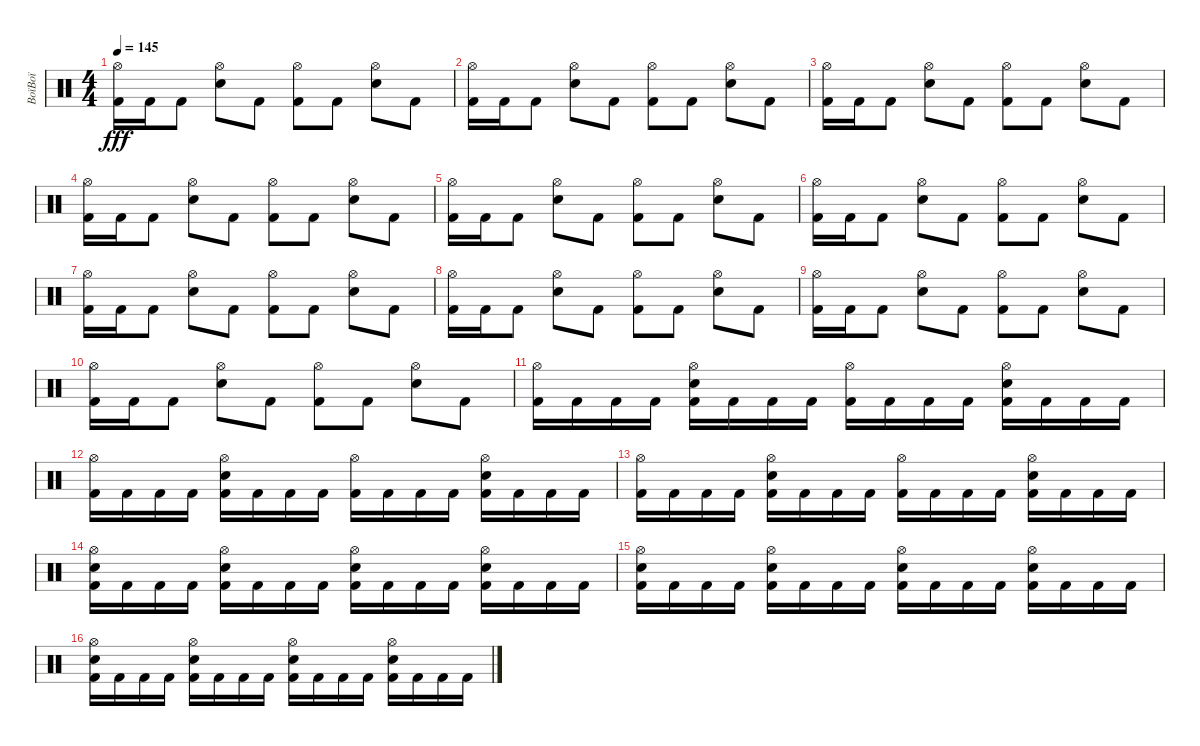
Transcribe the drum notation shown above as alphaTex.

\track ("BoïBoï" "BoïBoï") {instrument percussion}
\staff {score}
\articulation defaults
\ts (4 4)
\tempo 145
\clef neutral
\ks c
("Hi-Hat (open)" "Kick (hit) 2").16{dy fff} "Kick (hit) 2".16 "Kick (hit) 2".8 ("Hi-Hat (open)" "Electric Snare (hit)").8 "Kick (hit) 2".8 ("Hi-Hat (open)" "Kick (hit) 2").8 "Kick (hit) 2".8 ("Hi-Hat (open)" "Electric Snare (hit)").8 "Kick (hit) 2".8 |
("Hi-Hat (open)" "Kick (hit) 2").16 "Kick (hit) 2".16 "Kick (hit) 2".8 ("Hi-Hat (open)" "Electric Snare (hit)").8 "Kick (hit) 2".8 ("Hi-Hat (open)" "Kick (hit) 2").8 "Kick (hit) 2".8 ("Hi-Hat (open)" "Electric Snare (hit)").8 "Kick (hit) 2".8 |
("Hi-Hat (open)" "Kick (hit) 2").16 "Kick (hit) 2".16 "Kick (hit) 2".8 ("Hi-Hat (open)" "Electric Snare (hit)").8 "Kick (hit) 2".8 ("Hi-Hat (open)" "Kick (hit) 2").8 "Kick (hit) 2".8 ("Hi-Hat (open)" "Electric Snare (hit)").8 "Kick (hit) 2".8 |
("Hi-Hat (open)" "Kick (hit) 2").16 "Kick (hit) 2".16 "Kick (hit) 2".8 ("Hi-Hat (open)" "Electric Snare (hit)").8 "Kick (hit) 2".8 ("Hi-Hat (open)" "Kick (hit) 2").8 "Kick (hit) 2".8 ("Hi-Hat (open)" "Electric Snare (hit)").8 "Kick (hit) 2".8 |
("Hi-Hat (open)" "Kick (hit) 2").16 "Kick (hit) 2".16 "Kick (hit) 2".8 ("Hi-Hat (open)" "Electric Snare (hit)").8 "Kick (hit) 2".8 ("Hi-Hat (open)" "Kick (hit) 2").8 "Kick (hit) 2".8 ("Hi-Hat (open)" "Electric Snare (hit)").8 "Kick (hit) 2".8 |
("Hi-Hat (open)" "Kick (hit) 2").16 "Kick (hit) 2".16 "Kick (hit) 2".8 ("Hi-Hat (open)" "Electric Snare (hit)").8 "Kick (hit) 2".8 ("Hi-Hat (open)" "Kick (hit) 2").8 "Kick (hit) 2".8 ("Hi-Hat (open)" "Electric Snare (hit)").8 "Kick (hit) 2".8 |
("Hi-Hat (open)" "Kick (hit) 2").16 "Kick (hit) 2".16 "Kick (hit) 2".8 ("Hi-Hat (open)" "Electric Snare (hit)").8 "Kick (hit) 2".8 ("Hi-Hat (open)" "Kick (hit) 2").8 "Kick (hit) 2".8 ("Hi-Hat (open)" "Electric Snare (hit)").8 "Kick (hit) 2".8 |
("Hi-Hat (open)" "Kick (hit) 2").16 "Kick (hit) 2".16 "Kick (hit) 2".8 ("Hi-Hat (open)" "Electric Snare (hit)").8 "Kick (hit) 2".8 ("Hi-Hat (open)" "Kick (hit) 2").8 "Kick (hit) 2".8 ("Hi-Hat (open)" "Electric Snare (hit)").8 "Kick (hit) 2".8 |
("Hi-Hat (open)" "Kick (hit) 2").16 "Kick (hit) 2".16 "Kick (hit) 2".8 ("Hi-Hat (open)" "Electric Snare (hit)").8 "Kick (hit) 2".8 ("Hi-Hat (open)" "Kick (hit) 2").8 "Kick (hit) 2".8 ("Hi-Hat (open)" "Electric Snare (hit)").8 "Kick (hit) 2".8 |
("Hi-Hat (open)" "Kick (hit) 2").16 "Kick (hit) 2".16 "Kick (hit) 2".8 ("Hi-Hat (open)" "Electric Snare (hit)").8 "Kick (hit) 2".8 ("Hi-Hat (open)" "Kick (hit) 2").8 "Kick (hit) 2".8 ("Hi-Hat (open)" "Electric Snare (hit)").8 "Kick (hit) 2".8 |
("Hi-Hat (open)" "Kick (hit) 2").16 "Kick (hit) 2".16 "Kick (hit) 2".16 "Kick (hit) 2".16 ("Hi-Hat (open)" "Electric Snare (hit)" "Kick (hit) 2").16 "Kick (hit) 2".16 "Kick (hit) 2".16 "Kick (hit) 2".16 ("Hi-Hat (open)" "Kick (hit) 2").16 "Kick (hit) 2".16 "Kick (hit) 2".16 "Kick (hit) 2".16 ("Hi-Hat (open)" "Electric Snare (hit)" "Kick (hit) 2").16 "Kick (hit) 2".16 "Kick (hit) 2".16 "Kick (hit) 2".16 |
("Hi-Hat (open)" "Kick (hit) 2").16 "Kick (hit) 2".16 "Kick (hit) 2".16 "Kick (hit) 2".16 ("Hi-Hat (open)" "Electric Snare (hit)" "Kick (hit) 2").16 "Kick (hit) 2".16 "Kick (hit) 2".16 "Kick (hit) 2".16 ("Hi-Hat (open)" "Kick (hit) 2").16 "Kick (hit) 2".16 "Kick (hit) 2".16 "Kick (hit) 2".16 ("Hi-Hat (open)" "Electric Snare (hit)" "Kick (hit) 2").16 "Kick (hit) 2".16 "Kick (hit) 2".16 "Kick (hit) 2".16 |
("Hi-Hat (open)" "Kick (hit) 2").16 "Kick (hit) 2".16 "Kick (hit) 2".16 "Kick (hit) 2".16 ("Hi-Hat (open)" "Electric Snare (hit)" "Kick (hit) 2").16 "Kick (hit) 2".16 "Kick (hit) 2".16 "Kick (hit) 2".16 ("Hi-Hat (open)" "Kick (hit) 2").16 "Kick (hit) 2".16 "Kick (hit) 2".16 "Kick (hit) 2".16 ("Hi-Hat (open)" "Electric Snare (hit)" "Kick (hit) 2").16 "Kick (hit) 2".16 "Kick (hit) 2".16 "Kick (hit) 2".16 |
("Hi-Hat (open)" "Electric Snare (hit)" "Kick (hit) 2").16 "Kick (hit) 2".16 "Kick (hit) 2".16 "Kick (hit) 2".16 ("Hi-Hat (open)" "Electric Snare (hit)" "Kick (hit) 2").16 "Kick (hit) 2".16 "Kick (hit) 2".16 "Kick (hit) 2".16 ("Hi-Hat (open)" "Electric Snare (hit)" "Kick (hit) 2").16 "Kick (hit) 2".16 "Kick (hit) 2".16 "Kick (hit) 2".16 ("Hi-Hat (open)" "Electric Snare (hit)" "Kick (hit) 2").16 "Kick (hit) 2".16 "Kick (hit) 2".16 "Kick (hit) 2".16 |
("Hi-Hat (open)" "Electric Snare (hit)" "Kick (hit) 2").16 "Kick (hit) 2".16 "Kick (hit) 2".16 "Kick (hit) 2".16 ("Hi-Hat (open)" "Electric Snare (hit)" "Kick (hit) 2").16 "Kick (hit) 2".16 "Kick (hit) 2".16 "Kick (hit) 2".16 ("Hi-Hat (open)" "Electric Snare (hit)" "Kick (hit) 2").16 "Kick (hit) 2".16 "Kick (hit) 2".16 "Kick (hit) 2".16 ("Hi-Hat (open)" "Electric Snare (hit)" "Kick (hit) 2").16 "Kick (hit) 2".16 "Kick (hit) 2".16 "Kick (hit) 2".16 |
("Hi-Hat (open)" "Electric Snare (hit)" "Kick (hit) 2").16 "Kick (hit) 2".16 "Kick (hit) 2".16 "Kick (hit) 2".16 ("Hi-Hat (open)" "Electric Snare (hit)" "Kick (hit) 2").16 "Kick (hit) 2".16 "Kick (hit) 2".16 "Kick (hit) 2".16 ("Hi-Hat (open)" "Electric Snare (hit)" "Kick (hit) 2").16 "Kick (hit) 2".16 "Kick (hit) 2".16 "Kick (hit) 2".16 ("Hi-Hat (open)" "Electric Snare (hit)" "Kick (hit) 2").16 "Kick (hit) 2".16 "Kick (hit) 2".16 "Kick (hit) 2".16
